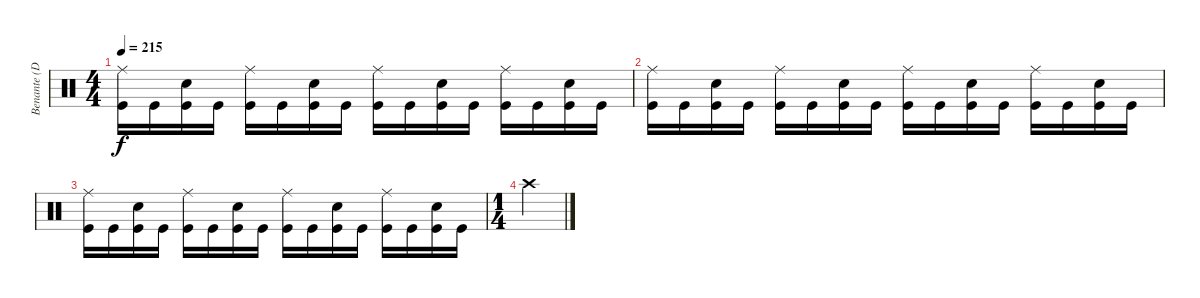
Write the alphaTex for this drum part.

\track ("Benante (Drums)" "Benante (D") {instrument percussion}
\staff {score}
\articulation defaults
\ts (4 4)
\tempo 215
\clef neutral
\ks c
("Ride (middle)" "Kick (hit)").16{dy f} "Kick (hit)".16 ("Snare (hit) 2" "Kick (hit)").16 "Kick (hit)".16 ("Ride (middle)" "Kick (hit)").16 "Kick (hit)".16 ("Snare (hit) 2" "Kick (hit)").16 "Kick (hit)".16 ("Ride (middle)" "Kick (hit)").16 "Kick (hit)".16 ("Snare (hit) 2" "Kick (hit)").16 "Kick (hit)".16 ("Ride (middle)" "Kick (hit)").16 "Kick (hit)".16 ("Snare (hit) 2" "Kick (hit)").16 "Kick (hit)".16 |
("Ride (middle)" "Kick (hit)").16 "Kick (hit)".16 ("Snare (hit) 2" "Kick (hit)").16 "Kick (hit)".16 ("Ride (middle)" "Kick (hit)").16 "Kick (hit)".16 ("Snare (hit) 2" "Kick (hit)").16 "Kick (hit)".16 ("Ride (middle)" "Kick (hit)").16 "Kick (hit)".16 ("Snare (hit) 2" "Kick (hit)").16 "Kick (hit)".16 ("Ride (middle)" "Kick (hit)").16 "Kick (hit)".16 ("Snare (hit) 2" "Kick (hit)").16 "Kick (hit)".16 |
("Ride (middle)" "Kick (hit)").16 "Kick (hit)".16 ("Snare (hit) 2" "Kick (hit)").16 "Kick (hit)".16 ("Ride (middle)" "Kick (hit)").16 "Kick (hit)".16 ("Snare (hit) 2" "Kick (hit)").16 "Kick (hit)".16 ("Ride (middle)" "Kick (hit)").16 "Kick (hit)".16 ("Snare (hit) 2" "Kick (hit)").16 "Kick (hit)".16 ("Ride (middle)" "Kick (hit)").16 "Kick (hit)".16 ("Snare (hit) 2" "Kick (hit)").16 "Kick (hit)".16 |
\ts (1 4)
"Crash high (hit)".4
